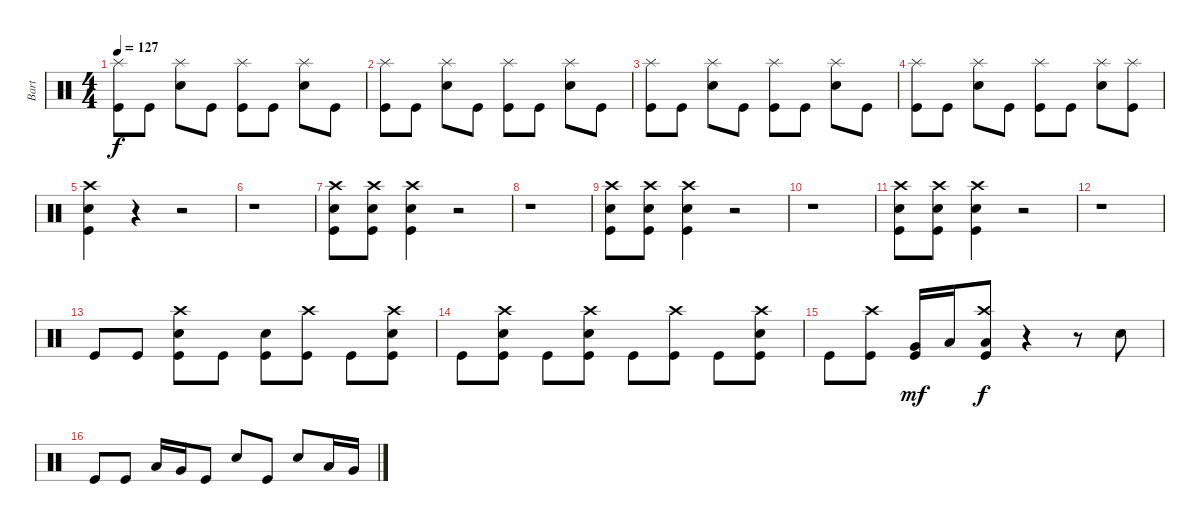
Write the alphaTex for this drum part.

\track ("Bart" "Bart") {instrument percussion}
\staff {score}
\articulation defaults
\ts (4 4)
\tempo 127
\clef neutral
\ks c
("Kick (hit)" "Splash (hit)").8{dy f} "Kick (hit)".8 ("Electric Snare (hit)" "Splash (hit)").8 "Kick (hit)".8 ("Kick (hit)" "Splash (hit)").8 "Kick (hit)".8 ("Electric Snare (hit)" "Splash (hit)").8 "Kick (hit)".8 |
("Kick (hit)" "Splash (hit)").8 "Kick (hit)".8 ("Electric Snare (hit)" "Splash (hit)").8 "Kick (hit)".8 ("Kick (hit)" "Splash (hit)").8 "Kick (hit)".8 ("Electric Snare (hit)" "Splash (hit)").8 "Kick (hit)".8 |
("Kick (hit)" "Splash (hit)").8 "Kick (hit)".8 ("Electric Snare (hit)" "Splash (hit)").8 "Kick (hit)".8 ("Kick (hit)" "Splash (hit)").8 "Kick (hit)".8 ("Electric Snare (hit)" "Splash (hit)").8 "Kick (hit)".8 |
("Kick (hit)" "Splash (hit)").8 "Kick (hit)".8 ("Electric Snare (hit)" "Splash (hit)").8 "Kick (hit)".8 ("Kick (hit)" "Splash (hit)").8 "Kick (hit)".8 ("Electric Snare (hit)" "Splash (hit)").8 ("Kick (hit)" "Splash (hit)").8 |
("Kick (hit)" "Electric Snare (hit)" "Crash high (hit)").4 r.4 r.2 |
r.1 |
("Kick (hit)" "Electric Snare (hit)" "Crash high (hit)").8 ("Kick (hit)" "Electric Snare (hit)" "Crash high (hit)").8 ("Kick (hit)" "Electric Snare (hit)" "Crash high (hit)").4 r.2 |
r.1 |
("Kick (hit)" "Electric Snare (hit)" "Crash high (hit)").8 ("Kick (hit)" "Electric Snare (hit)" "Crash high (hit)").8 ("Kick (hit)" "Electric Snare (hit)" "Crash high (hit)").4 r.2 |
r.1 |
("Kick (hit)" "Electric Snare (hit)" "Crash high (hit)").8 ("Kick (hit)" "Electric Snare (hit)" "Crash high (hit)").8 ("Kick (hit)" "Electric Snare (hit)" "Crash high (hit)").4 r.2 |
r.1 |
"Kick (hit)".8 "Kick (hit)".8 ("Kick (hit)" "Electric Snare (hit)" "Crash high (hit)").8 "Kick (hit)".8 ("Kick (hit)" "Electric Snare (hit)").8 ("Kick (hit)" "Crash high (hit)").8 "Kick (hit)".8 ("Kick (hit)" "Electric Snare (hit)" "Crash high (hit)").8 |
"Kick (hit)".8 ("Kick (hit)" "Electric Snare (hit)" "Crash high (hit)").8 "Kick (hit)".8 ("Kick (hit)" "Electric Snare (hit)" "Crash high (hit)").8 "Kick (hit)".8 ("Kick (hit)" "Crash high (hit)").8 "Kick (hit)".8 ("Kick (hit)" "Electric Snare (hit)" "Crash high (hit)").8 |
"Kick (hit)".8 ("Kick (hit)" "Crash high (hit)").8 ("Kick (hit)" "Very Low Tom (hit)").16{dy mf} "Low Tom (hit)".16 ("Kick (hit)" "Low Floor Tom (hit)" "Crash high (hit)").8{dy f} r.4 r.8 "Electric Snare (hit)".8 |
"Kick (hit)".8 "Kick (hit)".8 "Low Tom (hit)".16 "Very Low Tom (hit)".16 "Kick (hit)".8 "Electric Snare (hit)".8 "Kick (hit)".8 "Electric Snare (hit)".8 "Low Tom (hit)".16 "Very Low Tom (hit)".16
